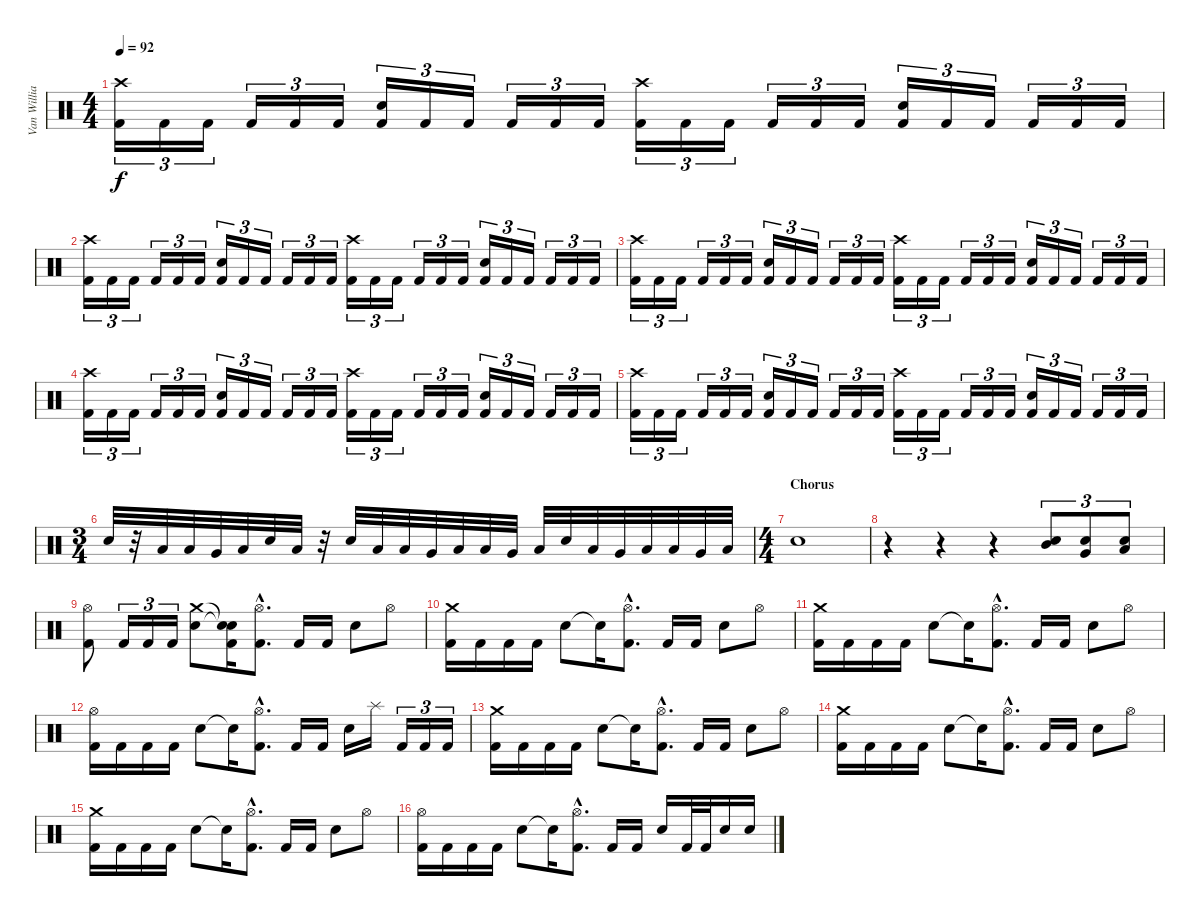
\track ("Van Williams" "Van Willia") {instrument percussion}
\staff {score}
\articulation defaults
\ts (4 4)
\tempo 92
\clef neutral
\ks c
("Crash high (hit)" "Kick (hit) 2").16{tu (3 2) dy f} "Kick (hit) 2".16{tu (3 2)} "Kick (hit) 2".16{tu (3 2)} "Kick (hit) 2".16{tu (3 2)} "Kick (hit) 2".16{tu (3 2)} "Kick (hit) 2".16{tu (3 2)} ("Electric Snare (hit)" "Kick (hit) 2").16{tu (3 2)} "Kick (hit) 2".16{tu (3 2)} "Kick (hit) 2".16{tu (3 2)} "Kick (hit) 2".16{tu (3 2)} "Kick (hit) 2".16{tu (3 2)} "Kick (hit) 2".16{tu (3 2)} ("Crash high (hit)" "Kick (hit) 2").16{tu (3 2)} "Kick (hit) 2".16{tu (3 2)} "Kick (hit) 2".16{tu (3 2)} "Kick (hit) 2".16{tu (3 2)} "Kick (hit) 2".16{tu (3 2)} "Kick (hit) 2".16{tu (3 2)} ("Electric Snare (hit)" "Kick (hit) 2").16{tu (3 2)} "Kick (hit) 2".16{tu (3 2)} "Kick (hit) 2".16{tu (3 2)} "Kick (hit) 2".16{tu (3 2)} "Kick (hit) 2".16{tu (3 2)} "Kick (hit) 2".16{tu (3 2)} |
("Crash high (hit)" "Kick (hit) 2").16{tu (3 2)} "Kick (hit) 2".16{tu (3 2)} "Kick (hit) 2".16{tu (3 2)} "Kick (hit) 2".16{tu (3 2)} "Kick (hit) 2".16{tu (3 2)} "Kick (hit) 2".16{tu (3 2)} ("Electric Snare (hit)" "Kick (hit) 2").16{tu (3 2)} "Kick (hit) 2".16{tu (3 2)} "Kick (hit) 2".16{tu (3 2)} "Kick (hit) 2".16{tu (3 2)} "Kick (hit) 2".16{tu (3 2)} "Kick (hit) 2".16{tu (3 2)} ("Crash high (hit)" "Kick (hit) 2").16{tu (3 2)} "Kick (hit) 2".16{tu (3 2)} "Kick (hit) 2".16{tu (3 2)} "Kick (hit) 2".16{tu (3 2)} "Kick (hit) 2".16{tu (3 2)} "Kick (hit) 2".16{tu (3 2)} ("Electric Snare (hit)" "Kick (hit) 2").16{tu (3 2)} "Kick (hit) 2".16{tu (3 2)} "Kick (hit) 2".16{tu (3 2)} "Kick (hit) 2".16{tu (3 2)} "Kick (hit) 2".16{tu (3 2)} "Kick (hit) 2".16{tu (3 2)} |
("Crash high (hit)" "Kick (hit) 2").16{tu (3 2)} "Kick (hit) 2".16{tu (3 2)} "Kick (hit) 2".16{tu (3 2)} "Kick (hit) 2".16{tu (3 2)} "Kick (hit) 2".16{tu (3 2)} "Kick (hit) 2".16{tu (3 2)} ("Electric Snare (hit)" "Kick (hit) 2").16{tu (3 2)} "Kick (hit) 2".16{tu (3 2)} "Kick (hit) 2".16{tu (3 2)} "Kick (hit) 2".16{tu (3 2)} "Kick (hit) 2".16{tu (3 2)} "Kick (hit) 2".16{tu (3 2)} ("Crash high (hit)" "Kick (hit) 2").16{tu (3 2)} "Kick (hit) 2".16{tu (3 2)} "Kick (hit) 2".16{tu (3 2)} "Kick (hit) 2".16{tu (3 2)} "Kick (hit) 2".16{tu (3 2)} "Kick (hit) 2".16{tu (3 2)} ("Electric Snare (hit)" "Kick (hit) 2").16{tu (3 2)} "Kick (hit) 2".16{tu (3 2)} "Kick (hit) 2".16{tu (3 2)} "Kick (hit) 2".16{tu (3 2)} "Kick (hit) 2".16{tu (3 2)} "Kick (hit) 2".16{tu (3 2)} |
("Crash high (hit)" "Kick (hit) 2").16{tu (3 2)} "Kick (hit) 2".16{tu (3 2)} "Kick (hit) 2".16{tu (3 2)} "Kick (hit) 2".16{tu (3 2)} "Kick (hit) 2".16{tu (3 2)} "Kick (hit) 2".16{tu (3 2)} ("Electric Snare (hit)" "Kick (hit) 2").16{tu (3 2)} "Kick (hit) 2".16{tu (3 2)} "Kick (hit) 2".16{tu (3 2)} "Kick (hit) 2".16{tu (3 2)} "Kick (hit) 2".16{tu (3 2)} "Kick (hit) 2".16{tu (3 2)} ("Crash high (hit)" "Kick (hit) 2").16{tu (3 2)} "Kick (hit) 2".16{tu (3 2)} "Kick (hit) 2".16{tu (3 2)} "Kick (hit) 2".16{tu (3 2)} "Kick (hit) 2".16{tu (3 2)} "Kick (hit) 2".16{tu (3 2)} ("Electric Snare (hit)" "Kick (hit) 2").16{tu (3 2)} "Kick (hit) 2".16{tu (3 2)} "Kick (hit) 2".16{tu (3 2)} "Kick (hit) 2".16{tu (3 2)} "Kick (hit) 2".16{tu (3 2)} "Kick (hit) 2".16{tu (3 2)} |
("Crash high (hit)" "Kick (hit) 2").16{tu (3 2)} "Kick (hit) 2".16{tu (3 2)} "Kick (hit) 2".16{tu (3 2)} "Kick (hit) 2".16{tu (3 2)} "Kick (hit) 2".16{tu (3 2)} "Kick (hit) 2".16{tu (3 2)} ("Electric Snare (hit)" "Kick (hit) 2").16{tu (3 2)} "Kick (hit) 2".16{tu (3 2)} "Kick (hit) 2".16{tu (3 2)} "Kick (hit) 2".16{tu (3 2)} "Kick (hit) 2".16{tu (3 2)} "Kick (hit) 2".16{tu (3 2)} ("Crash high (hit)" "Kick (hit) 2").16{tu (3 2)} "Kick (hit) 2".16{tu (3 2)} "Kick (hit) 2".16{tu (3 2)} "Kick (hit) 2".16{tu (3 2)} "Kick (hit) 2".16{tu (3 2)} "Kick (hit) 2".16{tu (3 2)} ("Electric Snare (hit)" "Kick (hit) 2").16{tu (3 2)} "Kick (hit) 2".16{tu (3 2)} "Kick (hit) 2".16{tu (3 2)} "Kick (hit) 2".16{tu (3 2)} "Kick (hit) 2".16{tu (3 2)} "Kick (hit) 2".16{tu (3 2)} |
\ts (3 4)
"Electric Snare (hit)".32 r.32 "Low Tom (hit)".32 "Low Tom (hit)".32 "Very Low Tom (hit)".32 "Low Floor Tom (hit)".32 "Electric Snare (hit)".32 "Low Tom (hit)".32 r.32 "Electric Snare (hit)".32 "Low Tom (hit)".32 "Low Tom (hit)".32 "Very Low Tom (hit)".32 "Low Floor Tom (hit)".32 "Low Tom (hit)".32 "Very Low Tom (hit)".32 "Low Floor Tom (hit)".32 "Electric Snare (hit)".32 "Low Tom (hit)".32 "Very Low Tom (hit)".32 "Low Floor Tom (hit)".32 "Low Tom (hit)".32 "Very Low Tom (hit)".32 "Low Floor Tom (hit)".32 |
\ts (4 4)
\section ("" "Chorus")
"Electric Snare (hit)".1 |
r.4 r.4 r.4 ("Electric Snare (hit)" "Mid Tom (hit)").8{tu (3 2)} ("Electric Snare (hit)" "Very Low Tom (hit)").8{tu (3 2)} ("Electric Snare (hit)" "Low Floor Tom (hit)").8{tu (3 2)} |
("Hi-Hat (open)" "Kick (hit) 2").8 "Kick (hit) 2".16{tu (3 2)} "Kick (hit) 2".16{tu (3 2)} "Kick (hit) 2".16{tu (3 2)} ("Crash medium (hit)" "Electric Snare (hit)").8 ("Snare (hit)"{t} "Snare (hit)"{t} "Kick (hit) 2").16 ("Hi-Hat (open)"{hac} "Kick (hit) 2"{hac}).8{d} "Kick (hit) 2".16 "Kick (hit) 2".16 "Electric Snare (hit)".8 "Hi-Hat (open)".8 |
("Crash medium (hit)" "Kick (hit) 2").16 "Kick (hit) 2".16 "Kick (hit) 2".16 "Kick (hit) 2".16 "Electric Snare (hit)".8 "Snare (hit)"{t}.16 ("Hi-Hat (open)"{hac} "Kick (hit) 2"{hac}).8{d} "Kick (hit) 2".16 "Kick (hit) 2".16 "Electric Snare (hit)".8 "Hi-Hat (open)".8 |
("Crash medium (hit)" "Kick (hit) 2").16 "Kick (hit) 2".16 "Kick (hit) 2".16 "Kick (hit) 2".16 "Electric Snare (hit)".8 "Snare (hit)"{t}.16 ("Hi-Hat (open)"{hac} "Kick (hit) 2"{hac}).8{d} "Kick (hit) 2".16 "Kick (hit) 2".16 "Electric Snare (hit)".8 "Hi-Hat (open)".8 |
("Hi-Hat (open)" "Kick (hit) 2").16 "Kick (hit) 2".16 "Kick (hit) 2".16 "Kick (hit) 2".16 "Electric Snare (hit)".8 "Snare (hit)"{t}.16 ("Hi-Hat (open)"{hac} "Kick (hit) 2"{hac}).8{d} "Kick (hit) 2".16 "Kick (hit) 2".16 "Electric Snare (hit)".16 "Splash (hit)".16 "Kick (hit) 2".16{tu (3 2)} "Kick (hit) 2".16{tu (3 2)} "Kick (hit) 2".16{tu (3 2)} |
("Crash medium (hit)" "Kick (hit) 2").16 "Kick (hit) 2".16 "Kick (hit) 2".16 "Kick (hit) 2".16 "Electric Snare (hit)".8 "Snare (hit)"{t}.16 ("Hi-Hat (open)"{hac} "Kick (hit) 2"{hac}).8{d} "Kick (hit) 2".16 "Kick (hit) 2".16 "Electric Snare (hit)".8 "Hi-Hat (open)".8 |
("Crash medium (hit)" "Kick (hit) 2").16 "Kick (hit) 2".16 "Kick (hit) 2".16 "Kick (hit) 2".16 "Electric Snare (hit)".8 "Snare (hit)"{t}.16 ("Hi-Hat (open)"{hac} "Kick (hit) 2"{hac}).8{d} "Kick (hit) 2".16 "Kick (hit) 2".16 "Electric Snare (hit)".8 "Hi-Hat (open)".8 |
("Crash medium (hit)" "Kick (hit) 2").16 "Kick (hit) 2".16 "Kick (hit) 2".16 "Kick (hit) 2".16 "Electric Snare (hit)".8 "Snare (hit)"{t}.16 ("Hi-Hat (open)"{hac} "Kick (hit) 2"{hac}).8{d} "Kick (hit) 2".16 "Kick (hit) 2".16 "Electric Snare (hit)".8 "Hi-Hat (open)".8 |
("Hi-Hat (open)" "Kick (hit) 2").16 "Kick (hit) 2".16 "Kick (hit) 2".16 "Kick (hit) 2".16 "Electric Snare (hit)".8 "Snare (hit)"{t}.16 ("Hi-Hat (open)"{hac} "Kick (hit) 2"{hac}).8{d} "Kick (hit) 2".16 "Kick (hit) 2".16 "Electric Snare (hit)".16 "Kick (hit) 2".32 "Kick (hit) 2".32 "Electric Snare (hit)".16 "Electric Snare (hit)".16
